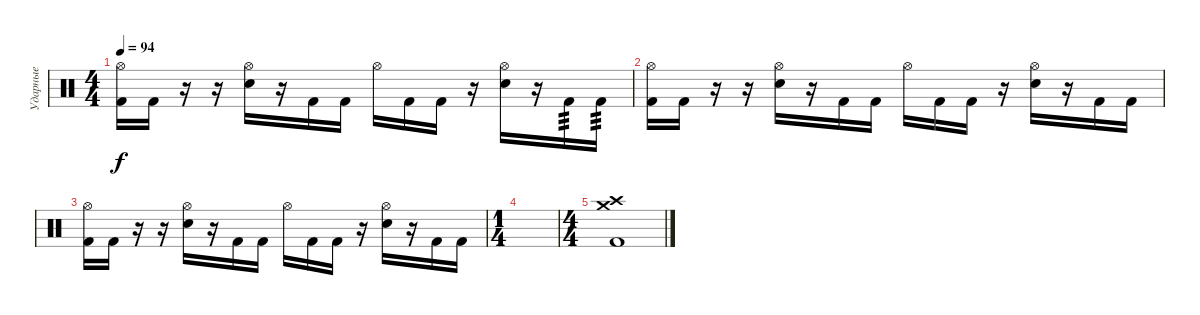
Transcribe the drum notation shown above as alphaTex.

\track ("Ударные" "Ударные") {instrument percussion}
\staff {score}
\articulation defaults
\ts (4 4)
\tempo 94
\clef neutral
\ks c
("Hi-Hat (open)" "Kick (hit) 2").16{dy f} "Kick (hit) 2".16 r.16 r.16 ("Hi-Hat (open)" "Electric Snare (hit)").16 r.16 "Kick (hit) 2".16 "Kick (hit) 2".16 "Hi-Hat (open)".16 "Kick (hit) 2".16 "Kick (hit) 2".16 r.16 ("Hi-Hat (open)" "Electric Snare (hit)").16 r.16 "Kick (hit) 2".16{tp 3} "Kick (hit) 2".16{tp 3} |
("Hi-Hat (open)" "Kick (hit) 2").16 "Kick (hit) 2".16 r.16 r.16 ("Hi-Hat (open)" "Electric Snare (hit)").16 r.16 "Kick (hit) 2".16 "Kick (hit) 2".16 "Hi-Hat (open)".16 "Kick (hit) 2".16 "Kick (hit) 2".16 r.16 ("Hi-Hat (open)" "Electric Snare (hit)").16 r.16 "Kick (hit) 2".16 "Kick (hit) 2".16 |
("Hi-Hat (open)" "Kick (hit) 2").16 "Kick (hit) 2".16 r.16 r.16 ("Hi-Hat (open)" "Electric Snare (hit)").16 r.16 "Kick (hit) 2".16 "Kick (hit) 2".16 "Hi-Hat (open)".16 "Kick (hit) 2".16 "Kick (hit) 2".16 r.16 ("Hi-Hat (open)" "Electric Snare (hit)").16 r.16 "Kick (hit) 2".16 "Kick (hit) 2".16 |
\ts (1 4)
|
\ts (4 4)
("Crash medium (hit)" "Crash high (hit)" "Kick (hit) 2").1
